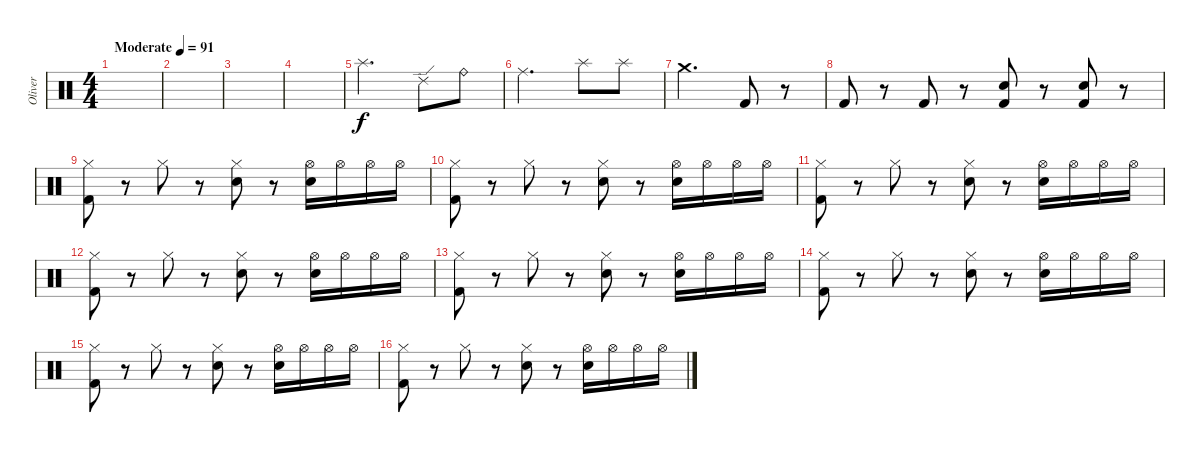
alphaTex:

\track ("Oliver" "Oliver") {instrument percussion}
\staff {score}
\articulation defaults
\ts (4 4)
\tempo (91 "Moderate")
\clef neutral
\ks c
|
|
|
|
"Splash (hit)".2{d} "Ride (edge) 2".8 "Ride (bell)".8 |
"Ride (middle)".2{d} "Splash (hit)".8 "Splash (hit)".8 |
"Crash medium (hit)".2{d} "Kick (hit) 2".8 r.8 |
"Kick (hit) 2".8 r.8 "Kick (hit) 2".8 r.8 ("Kick (hit) 2" "Snare (hit) 2").8 r.8 ("Kick (hit) 2" "Snare (hit) 2").8 r.8 |
("Hi-Hat (closed)" "Kick (hit) 2").8 r.8 "Hi-Hat (closed)".8 r.8 ("Hi-Hat (closed)" "Snare (hit) 2").8 r.8 ("Hi-Hat (open)" "Snare (hit) 2").16 "Hi-Hat (open)".16 "Hi-Hat (open)".16 "Hi-Hat (open)".16 |
("Hi-Hat (closed)" "Kick (hit) 2").8 r.8 "Hi-Hat (closed)".8 r.8 ("Hi-Hat (closed)" "Snare (hit) 2").8 r.8 ("Hi-Hat (open)" "Snare (hit) 2").16 "Hi-Hat (open)".16 "Hi-Hat (open)".16 "Hi-Hat (open)".16 |
("Hi-Hat (closed)" "Kick (hit) 2").8 r.8 "Hi-Hat (closed)".8 r.8 ("Hi-Hat (closed)" "Snare (hit) 2").8 r.8 ("Hi-Hat (open)" "Snare (hit) 2").16 "Hi-Hat (open)".16 "Hi-Hat (open)".16 "Hi-Hat (open)".16 |
("Hi-Hat (closed)" "Kick (hit) 2").8 r.8 "Hi-Hat (closed)".8 r.8 ("Hi-Hat (closed)" "Snare (hit) 2").8 r.8 ("Hi-Hat (open)" "Snare (hit) 2").16 "Hi-Hat (open)".16 "Hi-Hat (open)".16 "Hi-Hat (open)".16 |
("Hi-Hat (closed)" "Kick (hit) 2").8 r.8 "Hi-Hat (closed)".8 r.8 ("Hi-Hat (closed)" "Snare (hit) 2").8 r.8 ("Hi-Hat (open)" "Snare (hit) 2").16 "Hi-Hat (open)".16 "Hi-Hat (open)".16 "Hi-Hat (open)".16 |
("Hi-Hat (closed)" "Kick (hit) 2").8 r.8 "Hi-Hat (closed)".8 r.8 ("Hi-Hat (closed)" "Snare (hit) 2").8 r.8 ("Hi-Hat (open)" "Snare (hit) 2").16 "Hi-Hat (open)".16 "Hi-Hat (open)".16 "Hi-Hat (open)".16 |
("Hi-Hat (closed)" "Kick (hit) 2").8 r.8 "Hi-Hat (closed)".8 r.8 ("Hi-Hat (closed)" "Snare (hit) 2").8 r.8 ("Hi-Hat (open)" "Snare (hit) 2").16 "Hi-Hat (open)".16 "Hi-Hat (open)".16 "Hi-Hat (open)".16 |
("Hi-Hat (closed)" "Kick (hit) 2").8 r.8 "Hi-Hat (closed)".8 r.8 ("Hi-Hat (closed)" "Snare (hit) 2").8 r.8 ("Hi-Hat (open)" "Snare (hit) 2").16 "Hi-Hat (open)".16 "Hi-Hat (open)".16 "Hi-Hat (open)".16
